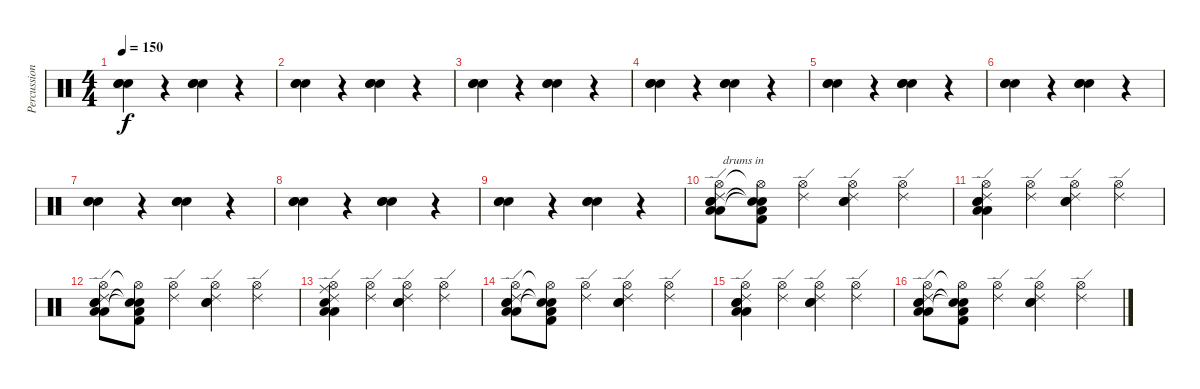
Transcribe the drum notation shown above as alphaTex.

\track ("Percussion" "Percussion") {instrument percussion}
\staff {score}
\articulation defaults
\ts (4 4)
\tempo 150
\clef neutral
\ks c
("Hand Clap (hit)" "Hand Clap (hit)" "Hand Clap (hit)").4{dy f} r.4 ("Hand Clap (hit)" "Hand Clap (hit)" "Hand Clap (hit)").4 r.4 |
("Hand Clap (hit)" "Hand Clap (hit)" "Hand Clap (hit)").4 r.4 ("Hand Clap (hit)" "Hand Clap (hit)" "Hand Clap (hit)").4 r.4 |
("Hand Clap (hit)" "Hand Clap (hit)" "Hand Clap (hit)").4 r.4 ("Hand Clap (hit)" "Hand Clap (hit)" "Hand Clap (hit)").4 r.4 |
("Hand Clap (hit)" "Hand Clap (hit)" "Hand Clap (hit)").4 r.4 ("Hand Clap (hit)" "Hand Clap (hit)" "Hand Clap (hit)").4 r.4 |
("Hand Clap (hit)" "Hand Clap (hit)" "Hand Clap (hit)").4 r.4 ("Hand Clap (hit)" "Hand Clap (hit)" "Hand Clap (hit)").4 r.4 |
("Hand Clap (hit)" "Hand Clap (hit)" "Hand Clap (hit)").4 r.4 ("Hand Clap (hit)" "Hand Clap (hit)" "Hand Clap (hit)").4 r.4 |
("Hand Clap (hit)" "Hand Clap (hit)" "Hand Clap (hit)").4 r.4 ("Hand Clap (hit)" "Hand Clap (hit)" "Hand Clap (hit)").4 r.4 |
("Hand Clap (hit)" "Hand Clap (hit)" "Hand Clap (hit)").4 r.4 ("Hand Clap (hit)" "Hand Clap (hit)" "Hand Clap (hit)").4 r.4 |
("Hand Clap (hit)" "Hand Clap (hit)" "Hand Clap (hit)").4 r.4 ("Hand Clap (hit)" "Hand Clap (hit)" "Hand Clap (hit)").4 r.4 |
("Hi-Hat (open)" "Ride (edge) 2" "Low Tom (hit)" "Low Tom (hit)" "Hand Clap (hit)" "Hand Clap (hit)").8{txt " drums in"} ("Hi-Hat (open)"{t} "Low Tom (hit)" "Kick (hit) 2" "Snare (hit)"{t} "Snare (hit)"{t}).8 ("Hi-Hat (open)" "Ride (edge) 2").4 ("Hi-Hat (open)" "Ride (edge) 2" "Hand Clap (hit)" "Hand Clap (hit)").4 ("Hi-Hat (open)" "Ride (edge) 2").4 |
("Hi-Hat (open)" "Ride (edge) 2" "Low Tom (hit)" "Low Tom (hit)" "Hand Clap (hit)" "Hand Clap (hit)").4 ("Hi-Hat (open)" "Ride (edge) 2").4 ("Hi-Hat (open)" "Ride (edge) 2" "Hand Clap (hit)" "Hand Clap (hit)").4 ("Hi-Hat (open)" "Ride (edge) 2").4 |
("Hi-Hat (open)" "Ride (edge) 2" "Low Tom (hit)" "Low Tom (hit)" "Hand Clap (hit)" "Hand Clap (hit)").8 ("Hi-Hat (open)"{t} "Low Tom (hit)" "Kick (hit) 2" "Snare (hit)"{t} "Snare (hit)"{t}).8 ("Hi-Hat (open)" "Ride (edge) 2").4 ("Hi-Hat (open)" "Ride (edge) 2" "Hand Clap (hit)" "Hand Clap (hit)").4 ("Hi-Hat (open)" "Ride (edge) 2").4 |
("Hi-Hat (open)" "Ride (edge) 2" "Low Tom (hit)" "Low Tom (hit)" "Ride (middle)" "Hand Clap (hit)").4 ("Hi-Hat (open)" "Ride (edge) 2").4 ("Hi-Hat (open)" "Ride (edge) 2" "Hand Clap (hit)" "Hand Clap (hit)").4 ("Hi-Hat (open)" "Ride (edge) 2").4 |
("Hi-Hat (open)" "Ride (edge) 2" "Low Tom (hit)" "Low Tom (hit)" "Hand Clap (hit)" "Hand Clap (hit)").8 ("Hi-Hat (open)"{t} "Low Tom (hit)" "Kick (hit) 2" "Snare (hit)"{t} "Snare (hit)"{t}).8 ("Hi-Hat (open)" "Ride (edge) 2").4 ("Hi-Hat (open)" "Ride (edge) 2" "Hand Clap (hit)" "Hand Clap (hit)").4 ("Hi-Hat (open)" "Ride (edge) 2").4 |
("Hi-Hat (open)" "Ride (edge) 2" "Low Tom (hit)" "Low Tom (hit)" "Hand Clap (hit)" "Hand Clap (hit)").4 ("Hi-Hat (open)" "Ride (edge) 2").4 ("Hi-Hat (open)" "Ride (edge) 2" "Hand Clap (hit)" "Hand Clap (hit)").4 ("Hi-Hat (open)" "Ride (edge) 2").4 |
("Hi-Hat (open)" "Ride (edge) 2" "Low Tom (hit)" "Low Tom (hit)" "Hand Clap (hit)" "Hand Clap (hit)").8 ("Hi-Hat (open)"{t} "Low Tom (hit)" "Kick (hit) 2" "Snare (hit)"{t} "Snare (hit)"{t}).8 ("Hi-Hat (open)" "Ride (edge) 2").4 ("Hi-Hat (open)" "Ride (edge) 2" "Hand Clap (hit)" "Hand Clap (hit)").4 ("Hi-Hat (open)" "Ride (edge) 2").4
